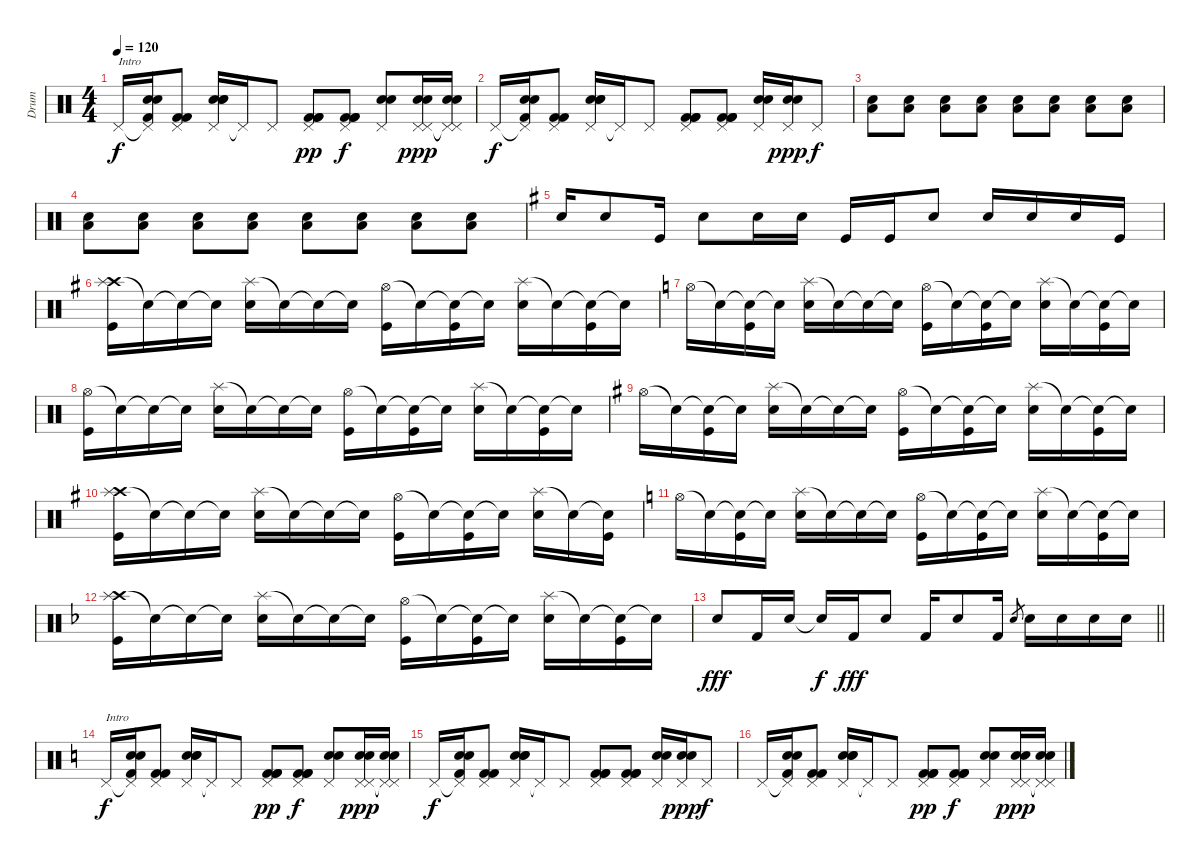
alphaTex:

\track ("Drum" "Drum") {instrument percussion}
\staff {score}
\articulation defaults
\ts (4 4)
\tempo 120
\clef neutral
\ks c "Pedal Hi-Hat (hit)".16{txt "Intro" dy f}
("Pedal Hi-Hat (hit)"{t} "Snare (hit) 2" "Snare (hit) 2" "Kick (hit) 2").16 ("Pedal Hi-Hat (hit)" "Kick (hit) 2" "Kick (hit) 2").8 ("Pedal Hi-Hat (hit)" "Snare (hit) 2" "Snare (hit) 2" "Snare (hit) 2").16 "Pedal Hi-Hat (hit)"{t}.16 "Pedal Hi-Hat (hit)".8 ("Pedal Hi-Hat (hit)" "Kick (hit) 2" "Kick (hit) 2" "Kick (hit) 2").8{dy pp} ("Pedal Hi-Hat (hit)" "Kick (hit) 2" "Kick (hit) 2" "Kick (hit) 2").8{dy f} ("Pedal Hi-Hat (hit)" "Snare (hit) 2" "Snare (hit) 2").8 ("Pedal Hi-Hat (hit)" "Pedal Hi-Hat (hit)" "Snare (hit) 2" "Snare (hit) 2").16{dy ppp} ("Pedal Hi-Hat (hit)"{t} "Pedal Hi-Hat (hit)"{t} "Snare (hit) 2" "Snare (hit) 2").16 |
"Pedal Hi-Hat (hit)".16{dy f} ("Pedal Hi-Hat (hit)"{t} "Snare (hit) 2" "Snare (hit) 2" "Kick (hit) 2").16 ("Pedal Hi-Hat (hit)" "Kick (hit) 2" "Kick (hit) 2").8 ("Pedal Hi-Hat (hit)" "Snare (hit) 2" "Snare (hit) 2" "Snare (hit) 2").16 "Pedal Hi-Hat (hit)"{t}.16 "Pedal Hi-Hat (hit)".8 ("Pedal Hi-Hat (hit)" "Kick (hit) 2" "Kick (hit) 2" "Kick (hit) 2").8 ("Pedal Hi-Hat (hit)" "Kick (hit) 2" "Kick (hit) 2" "Kick (hit) 2").8 ("Pedal Hi-Hat (hit)" "Snare (hit) 2" "Snare (hit) 2").16 ("Pedal Hi-Hat (hit)" "Snare (hit) 2" "Snare (hit) 2").16{dy ppp} "Pedal Hi-Hat (hit)".8{dy f} |
("Low Floor Tom (hit)" "Snare (hit) 2").8 ("Low Floor Tom (hit)" "Snare (hit) 2").8 ("Low Floor Tom (hit)" "Snare (hit) 2").8 ("Low Floor Tom (hit)" "Snare (hit) 2").8 ("Low Floor Tom (hit)" "Snare (hit) 2").8 ("Low Floor Tom (hit)" "Snare (hit) 2").8 ("Low Floor Tom (hit)" "Snare (hit) 2").8 ("Low Floor Tom (hit)" "Snare (hit) 2").8 |
("Low Floor Tom (hit)" "Snare (hit) 2").8 ("Low Floor Tom (hit)" "Snare (hit) 2").8 ("Low Floor Tom (hit)" "Snare (hit) 2").8 ("Low Floor Tom (hit)" "Snare (hit) 2").8 ("Low Floor Tom (hit)" "Snare (hit) 2").8 ("Low Floor Tom (hit)" "Snare (hit) 2").8 ("Low Floor Tom (hit)" "Snare (hit) 2").8 ("Low Floor Tom (hit)" "Snare (hit) 2").8 |
\ks g "Snare (hit) 2".16 "Snare (hit) 2".8 "Kick (hit)".16 "Snare (hit) 2".8 "Snare (hit) 2".16 "Snare (hit) 2".16 "Kick (hit)".16 "Kick (hit)".16 "Snare (hit) 2".8 "Snare (hit) 2".16 "Snare (hit) 2".16 "Snare (hit) 2".16 "Kick (hit)".16
|
("Crash high (hit)" "Splash (hit)" "Kick (hit)").16 "Snare (hit)"{t}.16 "Snare (hit)"{t}.16 "Snare (hit)"{t}.16 ("Splash (hit)" "Electric Snare (hit)").16 "Snare (hit)"{t}.16 "Snare (hit)"{t}.16 "Snare (hit)"{t}.16 ("Hi-Hat (open)" "Kick (hit)").16 "Snare (hit)"{t}.16 ("Snare (hit)"{t} "Kick (hit)").16 "Snare (hit)"{t}.16 ("Splash (hit)" "Electric Snare (hit)").16 "Snare (hit)"{t}.16 ("Snare (hit)"{t} "Kick (hit)").16 "Snare (hit)"{t}.16 |
\ks c "Hi-Hat (open)".16 "Snare (hit)"{t}.16
("Snare (hit)"{t} "Kick (hit)").16 "Snare (hit)"{t}.16 ("Splash (hit)" "Electric Snare (hit)").16 "Snare (hit)"{t}.16 "Snare (hit)"{t}.16 "Snare (hit)"{t}.16 ("Hi-Hat (open)" "Kick (hit)").16 "Snare (hit)"{t}.16 ("Snare (hit)"{t} "Kick (hit)").16 "Snare (hit)"{t}.16 ("Splash (hit)" "Electric Snare (hit)").16 "Snare (hit)"{t}.16 ("Snare (hit)"{t} "Kick (hit)").16 "Snare (hit)"{t}.16 |
("Hi-Hat (open)" "Kick (hit)").16 "Snare (hit)"{t}.16 "Snare (hit)"{t}.16 "Snare (hit)"{t}.16 ("Splash (hit)" "Electric Snare (hit)").16 "Snare (hit)"{t}.16 "Snare (hit)"{t}.16 "Snare (hit)"{t}.16 ("Hi-Hat (open)" "Kick (hit)").16 "Snare (hit)"{t}.16 ("Snare (hit)"{t} "Kick (hit)").16 "Snare (hit)"{t}.16 ("Splash (hit)" "Electric Snare (hit)").16 "Snare (hit)"{t}.16 ("Snare (hit)"{t} "Kick (hit)").16 "Snare (hit)"{t}.16 |
\ks g "Hi-Hat (open)".16 "Snare (hit)"{t}.16
("Snare (hit)"{t} "Kick (hit)").16 "Snare (hit)"{t}.16 ("Splash (hit)" "Electric Snare (hit)").16 "Snare (hit)"{t}.16 "Snare (hit)"{t}.16 "Snare (hit)"{t}.16 ("Hi-Hat (open)" "Kick (hit)").16 "Snare (hit)"{t}.16 ("Snare (hit)"{t} "Kick (hit)").16 "Snare (hit)"{t}.16 ("Splash (hit)" "Electric Snare (hit)").16 "Snare (hit)"{t}.16 ("Snare (hit)"{t} "Kick (hit)").16 "Snare (hit)"{t}.16 |
("Crash high (hit)" "Splash (hit)" "Kick (hit)").16 "Snare (hit)"{t}.16 "Snare (hit)"{t}.16 "Snare (hit)"{t}.16 ("Splash (hit)" "Electric Snare (hit)").16 "Snare (hit)"{t}.16 "Snare (hit)"{t}.16 "Snare (hit)"{t}.16 ("Hi-Hat (open)" "Kick (hit)").16 "Snare (hit)"{t}.16 ("Snare (hit)"{t} "Kick (hit)").16 "Snare (hit)"{t}.16 ("Splash (hit)" "Electric Snare (hit)").16 "Snare (hit)"{t}.16 ("Snare (hit)"{t} "Kick (hit)").16 |
\ks c "Hi-Hat (open)".16 "Snare (hit)"{t}.16
("Snare (hit)"{t} "Kick (hit)").16 "Snare (hit)"{t}.16 ("Splash (hit)" "Electric Snare (hit)").16 "Snare (hit)"{t}.16 "Snare (hit)"{t}.16 "Snare (hit)"{t}.16 ("Hi-Hat (open)" "Kick (hit)").16 "Snare (hit)"{t}.16 ("Snare (hit)"{t} "Kick (hit)").16 "Snare (hit)"{t}.16 ("Splash (hit)" "Electric Snare (hit)").16 "Snare (hit)"{t}.16 ("Snare (hit)"{t} "Kick (hit)").16 "Snare (hit)"{t}.16 |
\ks f
("Crash high (hit)" "Splash (hit)" "Kick (hit)").16 "Snare (hit)"{t}.16 "Snare (hit)"{t}.16 "Snare (hit)"{t}.16 ("Splash (hit)" "Electric Snare (hit)").16 "Snare (hit)"{t}.16 "Snare (hit)"{t}.16 "Snare (hit)"{t}.16 ("Hi-Hat (open)" "Kick (hit)").16 "Snare (hit)"{t}.16 ("Snare (hit)"{t} "Kick (hit)").16 "Snare (hit)"{t}.16 ("Splash (hit)" "Electric Snare (hit)").16 "Snare (hit)"{t}.16 ("Snare (hit)"{t} "Kick (hit)").16 "Snare (hit)"{t}.16 |
\barLineRight lightlight "Snare (hit) 2".8{dy fff} "Kick (hit) 2".16 "Snare (hit) 2".16 "Snare (hit)"{t}.16{dy f} "Kick (hit) 2".16{dy fff} "Snare (hit) 2".8 "Kick (hit) 2".16 "Snare (hit) 2".8 "Kick (hit) 2".16 "Snare (hit) 2".8{gr} "Snare (hit) 2".16 "Snare (hit) 2".16 "Snare (hit) 2".16 "Snare (hit) 2".16
|
\ks c "Pedal Hi-Hat (hit)".16{txt "Intro" dy f}
("Pedal Hi-Hat (hit)"{t} "Snare (hit) 2" "Snare (hit) 2" "Kick (hit) 2").16 ("Pedal Hi-Hat (hit)" "Kick (hit) 2" "Kick (hit) 2").8 ("Pedal Hi-Hat (hit)" "Snare (hit) 2" "Snare (hit) 2" "Snare (hit) 2").16 "Pedal Hi-Hat (hit)"{t}.16 "Pedal Hi-Hat (hit)".8 ("Pedal Hi-Hat (hit)" "Kick (hit) 2" "Kick (hit) 2" "Kick (hit) 2").8{dy pp} ("Pedal Hi-Hat (hit)" "Kick (hit) 2" "Kick (hit) 2" "Kick (hit) 2").8{dy f} ("Pedal Hi-Hat (hit)" "Snare (hit) 2" "Snare (hit) 2").8 ("Pedal Hi-Hat (hit)" "Pedal Hi-Hat (hit)" "Snare (hit) 2" "Snare (hit) 2").16{dy ppp} ("Pedal Hi-Hat (hit)"{t} "Pedal Hi-Hat (hit)"{t} "Snare (hit) 2" "Snare (hit) 2").16 |
"Pedal Hi-Hat (hit)".16{dy f} ("Pedal Hi-Hat (hit)"{t} "Snare (hit) 2" "Snare (hit) 2" "Kick (hit) 2").16 ("Pedal Hi-Hat (hit)" "Kick (hit) 2" "Kick (hit) 2").8 ("Pedal Hi-Hat (hit)" "Snare (hit) 2" "Snare (hit) 2" "Snare (hit) 2").16 "Pedal Hi-Hat (hit)"{t}.16 "Pedal Hi-Hat (hit)".8 ("Pedal Hi-Hat (hit)" "Kick (hit) 2" "Kick (hit) 2" "Kick (hit) 2").8 ("Pedal Hi-Hat (hit)" "Kick (hit) 2" "Kick (hit) 2" "Kick (hit) 2").8 ("Pedal Hi-Hat (hit)" "Snare (hit) 2" "Snare (hit) 2").16 ("Pedal Hi-Hat (hit)" "Snare (hit) 2" "Snare (hit) 2").16{dy ppp} "Pedal Hi-Hat (hit)".8{dy f} |
"Pedal Hi-Hat (hit)".16 ("Pedal Hi-Hat (hit)"{t} "Snare (hit) 2" "Snare (hit) 2" "Kick (hit) 2").16 ("Pedal Hi-Hat (hit)" "Kick (hit) 2" "Kick (hit) 2").8 ("Pedal Hi-Hat (hit)" "Snare (hit) 2" "Snare (hit) 2" "Snare (hit) 2").16 "Pedal Hi-Hat (hit)"{t}.16 "Pedal Hi-Hat (hit)".8 ("Pedal Hi-Hat (hit)" "Kick (hit) 2" "Kick (hit) 2" "Kick (hit) 2").8{dy pp} ("Pedal Hi-Hat (hit)" "Kick (hit) 2" "Kick (hit) 2" "Kick (hit) 2").8{dy f} ("Pedal Hi-Hat (hit)" "Snare (hit) 2" "Snare (hit) 2").8 ("Pedal Hi-Hat (hit)" "Pedal Hi-Hat (hit)" "Snare (hit) 2" "Snare (hit) 2").16{dy ppp} ("Pedal Hi-Hat (hit)"{t} "Pedal Hi-Hat (hit)"{t} "Snare (hit) 2" "Snare (hit) 2").16
